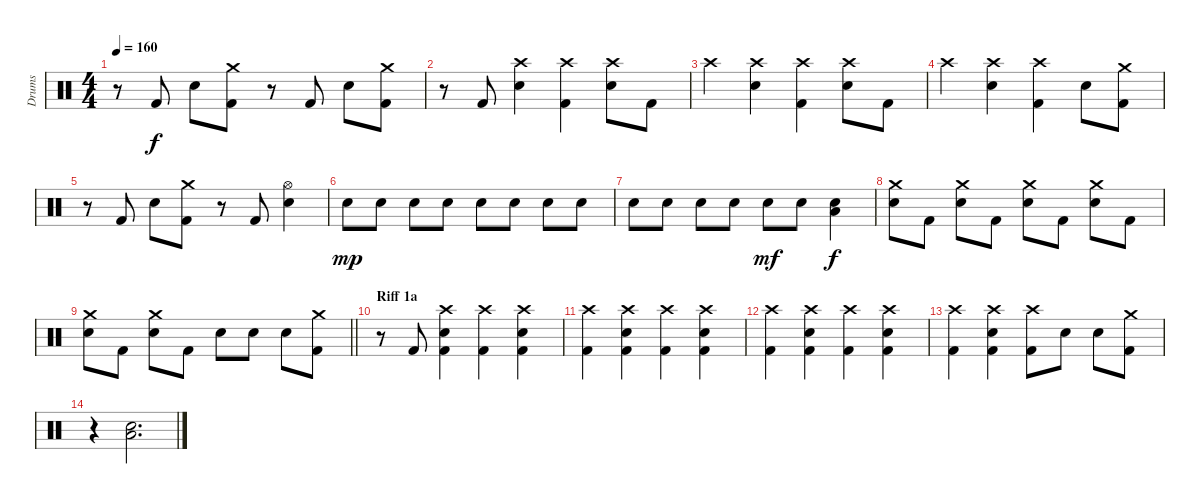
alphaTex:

\track ("Drums" "Drums") {instrument percussion}
\staff {score}
\articulation defaults
\ts (4 4)
\tempo 160
\clef neutral
\ks c
r.8{dy f} "Kick (hit) 2".8 "Electric Snare (hit)".8 ("Kick (hit) 2" "Crash medium (hit)").8 r.8 "Kick (hit) 2".8 "Electric Snare (hit)".8 ("Kick (hit) 2" "Crash medium (hit)").8 |
r.8 "Kick (hit) 2".8 ("Crash high (hit)" "Electric Snare (hit)").4 ("Crash high (hit)" "Kick (hit) 2").4 ("Crash high (hit)" "Electric Snare (hit)").8 "Kick (hit) 2".8 |
"Crash high (hit)".4 ("Crash high (hit)" "Electric Snare (hit)").4 ("Crash high (hit)" "Kick (hit) 2").4 ("Crash high (hit)" "Electric Snare (hit)").8 "Kick (hit) 2".8 |
"Crash high (hit)".4 ("Crash high (hit)" "Electric Snare (hit)").4 ("Crash high (hit)" "Kick (hit) 2").4 "Electric Snare (hit)".8 ("Kick (hit) 2" "Crash medium (hit)").8 |
r.8 "Kick (hit) 2".8 "Electric Snare (hit)".8 ("Kick (hit) 2" "Crash medium (hit)").8 r.8 "Kick (hit) 2".8 ("Electric Snare (hit)" "Hi-Hat (open)").4 |
"Electric Snare (hit)".8{dy mp} "Electric Snare (hit)".8 "Electric Snare (hit)".8 "Electric Snare (hit)".8 "Electric Snare (hit)".8 "Electric Snare (hit)".8 "Electric Snare (hit)".8 "Electric Snare (hit)".8 |
"Electric Snare (hit)".8 "Electric Snare (hit)".8 "Electric Snare (hit)".8 "Electric Snare (hit)".8 "Electric Snare (hit)".8{dy mf} "Electric Snare (hit)".8 ("Electric Snare (hit)" "Low Floor Tom (hit)").4{dy f} |
("Crash medium (hit)" "Electric Snare (hit)").8 "Kick (hit) 2".8 ("Crash medium (hit)" "Electric Snare (hit)").8 "Kick (hit) 2".8 ("Crash medium (hit)" "Electric Snare (hit)").8 "Kick (hit) 2".8 ("Crash medium (hit)" "Electric Snare (hit)").8 "Kick (hit) 2".8 |
\barLineRight lightlight
("Crash medium (hit)" "Electric Snare (hit)").8 "Kick (hit) 2".8 ("Crash medium (hit)" "Electric Snare (hit)").8 "Kick (hit) 2".8 "Electric Snare (hit)".8 "Electric Snare (hit)".8 "Electric Snare (hit)".8 ("Crash medium (hit)" "Kick (hit) 2").8 |
\section ("" "Riff 1a")
r.8 "Kick (hit) 2".8 ("Kick (hit) 2" "Electric Snare (hit)" "Crash high (hit)").4 ("Kick (hit) 2" "Crash high (hit)").4 ("Kick (hit) 2" "Electric Snare (hit)" "Crash high (hit)").4 |
("Kick (hit) 2" "Crash high (hit)").4 ("Kick (hit) 2" "Electric Snare (hit)" "Crash high (hit)").4 ("Kick (hit) 2" "Crash high (hit)").4 ("Kick (hit) 2" "Electric Snare (hit)" "Crash high (hit)").4 |
("Kick (hit) 2" "Crash high (hit)").4 ("Kick (hit) 2" "Electric Snare (hit)" "Crash high (hit)").4 ("Kick (hit) 2" "Crash high (hit)").4 ("Kick (hit) 2" "Electric Snare (hit)" "Crash high (hit)").4 |
("Kick (hit) 2" "Crash high (hit)").4 ("Kick (hit) 2" "Electric Snare (hit)" "Crash high (hit)").4 ("Kick (hit) 2" "Crash high (hit)").8 "Electric Snare (hit)".8 "Electric Snare (hit)".8 ("Kick (hit) 2" "Crash medium (hit)").8 |
r.4 ("Electric Snare (hit)" "Low Floor Tom (hit)").2{d}
